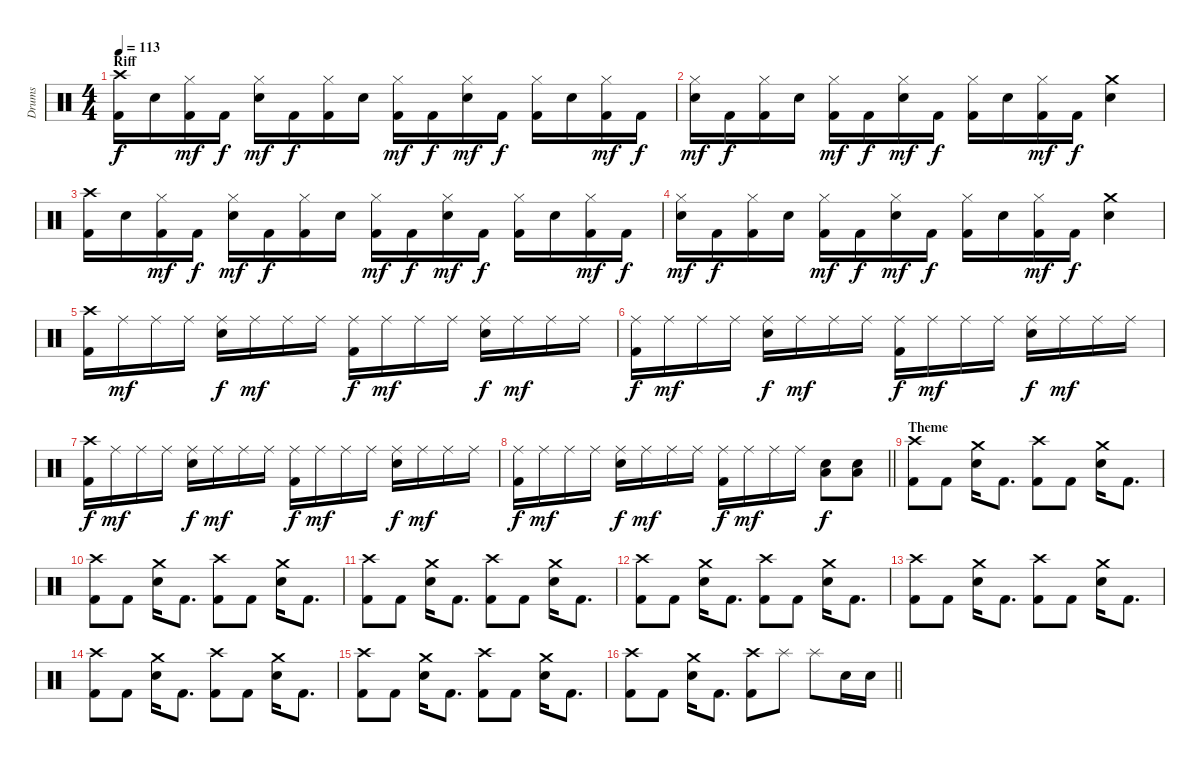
\track ("Drums" "Drums") {instrument percussion}
\staff {score}
\articulation defaults
\ts (4 4)
\section ("" "Riff")
\tempo 113
\clef neutral
\ks c
("Kick (hit) 2" "Crash high (hit)").16{dy f} "Electric Snare (hit)".16 ("Kick (hit) 2" "Hi-Hat (closed)").16{dy mf} "Kick (hit) 2".16{dy f} ("Hi-Hat (closed)" "Electric Snare (hit)").16{dy mf} "Kick (hit) 2".16{dy f} ("Kick (hit) 2" "Hi-Hat (closed)").16 "Electric Snare (hit)".16 ("Kick (hit) 2" "Hi-Hat (closed)").16{dy mf} "Kick (hit) 2".16{dy f} ("Hi-Hat (closed)" "Electric Snare (hit)").16{dy mf} "Kick (hit) 2".16{dy f} ("Kick (hit) 2" "Hi-Hat (closed)").16 "Electric Snare (hit)".16 ("Kick (hit) 2" "Hi-Hat (closed)").16{dy mf} "Kick (hit) 2".16{dy f} |
("Hi-Hat (closed)" "Electric Snare (hit)").16{dy mf} "Kick (hit) 2".16{dy f} ("Kick (hit) 2" "Hi-Hat (closed)").16 "Electric Snare (hit)".16 ("Kick (hit) 2" "Hi-Hat (closed)").16{dy mf} "Kick (hit) 2".16{dy f} ("Hi-Hat (closed)" "Electric Snare (hit)").16{dy mf} "Kick (hit) 2".16{dy f} ("Kick (hit) 2" "Hi-Hat (closed)").16 "Electric Snare (hit)".16 ("Kick (hit) 2" "Hi-Hat (closed)").16{dy mf} "Kick (hit) 2".16{dy f} ("Crash medium (hit)" "Electric Snare (hit)").4 |
("Kick (hit) 2" "Crash high (hit)").16 "Electric Snare (hit)".16 ("Kick (hit) 2" "Hi-Hat (closed)").16{dy mf} "Kick (hit) 2".16{dy f} ("Hi-Hat (closed)" "Electric Snare (hit)").16{dy mf} "Kick (hit) 2".16{dy f} ("Kick (hit) 2" "Hi-Hat (closed)").16 "Electric Snare (hit)".16 ("Kick (hit) 2" "Hi-Hat (closed)").16{dy mf} "Kick (hit) 2".16{dy f} ("Hi-Hat (closed)" "Electric Snare (hit)").16{dy mf} "Kick (hit) 2".16{dy f} ("Kick (hit) 2" "Hi-Hat (closed)").16 "Electric Snare (hit)".16 ("Kick (hit) 2" "Hi-Hat (closed)").16{dy mf} "Kick (hit) 2".16{dy f} |
("Hi-Hat (closed)" "Electric Snare (hit)").16{dy mf} "Kick (hit) 2".16{dy f} ("Kick (hit) 2" "Hi-Hat (closed)").16 "Electric Snare (hit)".16 ("Kick (hit) 2" "Hi-Hat (closed)").16{dy mf} "Kick (hit) 2".16{dy f} ("Hi-Hat (closed)" "Electric Snare (hit)").16{dy mf} "Kick (hit) 2".16{dy f} ("Kick (hit) 2" "Hi-Hat (closed)").16 "Electric Snare (hit)".16 ("Kick (hit) 2" "Hi-Hat (closed)").16{dy mf} "Kick (hit) 2".16{dy f} ("Crash medium (hit)" "Electric Snare (hit)").4 |
("Kick (hit) 2" "Crash high (hit)").16 "Ride (middle)".16{dy mf} "Ride (middle)".16 "Ride (middle)".16 ("Ride (middle)" "Electric Snare (hit)").16{dy f} "Ride (middle)".16{dy mf} "Ride (middle)".16 "Ride (middle)".16 ("Kick (hit) 2" "Ride (middle)").16{dy f} "Ride (middle)".16{dy mf} "Ride (middle)".16 "Ride (middle)".16 ("Ride (middle)" "Electric Snare (hit)").16{dy f} "Ride (middle)".16{dy mf} "Ride (middle)".16 "Ride (middle)".16 |
("Kick (hit) 2" "Ride (middle)").16{dy f} "Ride (middle)".16{dy mf} "Ride (middle)".16 "Ride (middle)".16 ("Ride (middle)" "Electric Snare (hit)").16{dy f} "Ride (middle)".16{dy mf} "Ride (middle)".16 "Ride (middle)".16 ("Kick (hit) 2" "Ride (middle)").16{dy f} "Ride (middle)".16{dy mf} "Ride (middle)".16 "Ride (middle)".16 ("Ride (middle)" "Electric Snare (hit)").16{dy f} "Ride (middle)".16{dy mf} "Ride (middle)".16 "Ride (middle)".16 |
("Kick (hit) 2" "Crash high (hit)").16{dy f} "Ride (middle)".16{dy mf} "Ride (middle)".16 "Ride (middle)".16 ("Ride (middle)" "Electric Snare (hit)").16{dy f} "Ride (middle)".16{dy mf} "Ride (middle)".16 "Ride (middle)".16 ("Kick (hit) 2" "Ride (middle)").16{dy f} "Ride (middle)".16{dy mf} "Ride (middle)".16 "Ride (middle)".16 ("Ride (middle)" "Electric Snare (hit)").16{dy f} "Ride (middle)".16{dy mf} "Ride (middle)".16 "Ride (middle)".16 |
\barLineRight lightlight
("Kick (hit) 2" "Ride (middle)").16{dy f} "Ride (middle)".16{dy mf} "Ride (middle)".16 "Ride (middle)".16 ("Ride (middle)" "Electric Snare (hit)").16{dy f} "Ride (middle)".16{dy mf} "Ride (middle)".16 "Ride (middle)".16 ("Kick (hit) 2" "Ride (middle)").16{dy f} "Ride (middle)".16{dy mf} "Ride (middle)".16 "Ride (middle)".16 ("Low Floor Tom (hit)" "Electric Snare (hit)").8{dy f} ("Low Floor Tom (hit)" "Electric Snare (hit)").8 |
\section ("" "Theme")
("Kick (hit) 2" "Crash high (hit)").8 "Kick (hit) 2".8 ("Crash medium (hit)" "Electric Snare (hit)").16 "Kick (hit) 2".8{d} ("Kick (hit) 2" "Crash high (hit)").8 "Kick (hit) 2".8 ("Crash medium (hit)" "Electric Snare (hit)").16 "Kick (hit) 2".8{d} |
("Kick (hit) 2" "Crash high (hit)").8 "Kick (hit) 2".8 ("Crash medium (hit)" "Electric Snare (hit)").16 "Kick (hit) 2".8{d} ("Kick (hit) 2" "Crash high (hit)").8 "Kick (hit) 2".8 ("Crash medium (hit)" "Electric Snare (hit)").16 "Kick (hit) 2".8{d} |
("Kick (hit) 2" "Crash high (hit)").8 "Kick (hit) 2".8 ("Crash medium (hit)" "Electric Snare (hit)").16 "Kick (hit) 2".8{d} ("Kick (hit) 2" "Crash high (hit)").8 "Kick (hit) 2".8 ("Crash medium (hit)" "Electric Snare (hit)").16 "Kick (hit) 2".8{d} |
("Kick (hit) 2" "Crash high (hit)").8 "Kick (hit) 2".8 ("Crash medium (hit)" "Electric Snare (hit)").16 "Kick (hit) 2".8{d} ("Kick (hit) 2" "Crash high (hit)").8 "Kick (hit) 2".8 ("Crash medium (hit)" "Electric Snare (hit)").16 "Kick (hit) 2".8{d} |
("Kick (hit) 2" "Crash high (hit)").8 "Kick (hit) 2".8 ("Crash medium (hit)" "Electric Snare (hit)").16 "Kick (hit) 2".8{d} ("Kick (hit) 2" "Crash high (hit)").8 "Kick (hit) 2".8 ("Crash medium (hit)" "Electric Snare (hit)").16 "Kick (hit) 2".8{d} |
("Kick (hit) 2" "Crash high (hit)").8 "Kick (hit) 2".8 ("Crash medium (hit)" "Electric Snare (hit)").16 "Kick (hit) 2".8{d} ("Kick (hit) 2" "Crash high (hit)").8 "Kick (hit) 2".8 ("Crash medium (hit)" "Electric Snare (hit)").16 "Kick (hit) 2".8{d} |
("Kick (hit) 2" "Crash high (hit)").8 "Kick (hit) 2".8 ("Crash medium (hit)" "Electric Snare (hit)").16 "Kick (hit) 2".8{d} ("Kick (hit) 2" "Crash high (hit)").8 "Kick (hit) 2".8 ("Crash medium (hit)" "Electric Snare (hit)").16 "Kick (hit) 2".8{d} |
\barLineRight lightlight
("Kick (hit) 2" "Crash high (hit)").8 "Kick (hit) 2".8 ("Crash medium (hit)" "Electric Snare (hit)").16 "Kick (hit) 2".8{d} ("Kick (hit) 2" "Crash high (hit)").8 "Splash (hit)".8 "Splash (hit)".8 "Electric Snare (hit)".16 "Electric Snare (hit)".16
